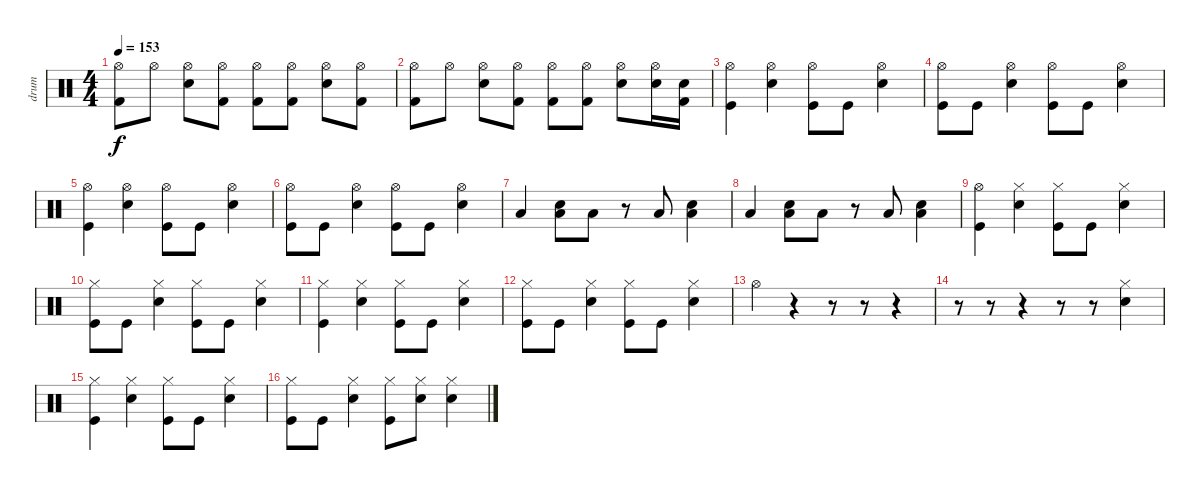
\track ("drum" "drum") {instrument percussion}
\staff {score}
\articulation defaults
\ts (4 4)
\tempo 153
\clef neutral
\ks aminor
("Hi-Hat (open)" "Kick (hit) 2").8{dy f} "Hi-Hat (open)".8 ("Hi-Hat (open)" "Snare (hit) 2").8 ("Hi-Hat (open)" "Kick (hit) 2").8 ("Hi-Hat (open)" "Kick (hit) 2").8 ("Hi-Hat (open)" "Kick (hit) 2").8 ("Hi-Hat (open)" "Snare (hit) 2").8 ("Hi-Hat (open)" "Kick (hit) 2").8 |
("Hi-Hat (open)" "Kick (hit) 2").8 "Hi-Hat (open)".8 ("Hi-Hat (open)" "Snare (hit) 2").8 ("Hi-Hat (open)" "Kick (hit) 2").8 ("Hi-Hat (open)" "Kick (hit) 2").8 ("Hi-Hat (open)" "Kick (hit) 2").8 ("Hi-Hat (open)" "Snare (hit) 2").8 ("Hi-Hat (open)" "Snare (hit) 2").16 ("Snare (hit) 2" "Kick (hit) 2").16 |
("Hi-Hat (open)" "Kick (hit)").4 ("Hi-Hat (open)" "Snare (hit) 2").4 ("Hi-Hat (open)" "Kick (hit)").8 "Kick (hit)".8 ("Hi-Hat (open)" "Snare (hit) 2").4 |
("Hi-Hat (open)" "Kick (hit)").8 "Kick (hit)".8 ("Hi-Hat (open)" "Snare (hit) 2").4 ("Hi-Hat (open)" "Kick (hit)").8 "Kick (hit)".8 ("Hi-Hat (open)" "Snare (hit) 2").4 |
("Hi-Hat (open)" "Kick (hit)").4 ("Hi-Hat (open)" "Snare (hit) 2").4 ("Hi-Hat (open)" "Kick (hit)").8 "Kick (hit)".8 ("Hi-Hat (open)" "Snare (hit) 2").4 |
\ks c
("Hi-Hat (open)" "Kick (hit)").8 "Kick (hit)".8 ("Hi-Hat (open)" "Snare (hit) 2").4 ("Hi-Hat (open)" "Kick (hit)").8 "Kick (hit)".8 ("Hi-Hat (open)" "Snare (hit) 2").4 |
\ks aminor "Low Floor Tom (hit)".4
("Snare (hit) 2" "Low Floor Tom (hit)").8 "Low Floor Tom (hit)".8 r.8 "Low Floor Tom (hit)".8 ("Snare (hit) 2" "Low Floor Tom (hit)").4 |
"Low Floor Tom (hit)".4 ("Snare (hit) 2" "Low Floor Tom (hit)").8 "Low Floor Tom (hit)".8 r.8 "Low Floor Tom (hit)".8 ("Snare (hit) 2" "Low Floor Tom (hit)").4 |
\ks c
("Hi-Hat (open)" "Kick (hit)").4 ("Hi-Hat (closed)" "Snare (hit) 2").4 ("Hi-Hat (closed)" "Kick (hit)").8 "Kick (hit)".8 ("Hi-Hat (closed)" "Snare (hit) 2").4 |
("Hi-Hat (closed)" "Kick (hit)").8 "Kick (hit)".8 ("Hi-Hat (closed)" "Snare (hit) 2").4 ("Hi-Hat (closed)" "Kick (hit)").8 "Kick (hit)".8 ("Hi-Hat (closed)" "Snare (hit) 2").4 |
("Hi-Hat (closed)" "Kick (hit)").4 ("Hi-Hat (closed)" "Snare (hit) 2").4 ("Hi-Hat (closed)" "Kick (hit)").8 "Kick (hit)".8 ("Hi-Hat (closed)" "Snare (hit) 2").4 |
("Hi-Hat (closed)" "Kick (hit)").8 "Kick (hit)".8 ("Hi-Hat (closed)" "Snare (hit) 2").4 ("Hi-Hat (closed)" "Kick (hit)").8 "Kick (hit)".8 ("Hi-Hat (closed)" "Snare (hit) 2").4 |
"Hi-Hat (open)".4 r.4 r.8 r.8 r.4 |
r.8 r.8 r.4 r.8 r.8 ("Hi-Hat (closed)" "Snare (hit) 2").4 |
("Hi-Hat (closed)" "Kick (hit)").4 ("Hi-Hat (closed)" "Snare (hit) 2").4 ("Hi-Hat (closed)" "Kick (hit)").8 "Kick (hit)".8 ("Hi-Hat (closed)" "Snare (hit) 2").4 |
("Hi-Hat (closed)" "Kick (hit)").8 "Kick (hit)".8 ("Hi-Hat (closed)" "Snare (hit) 2").4 ("Hi-Hat (closed)" "Kick (hit)").8 ("Hi-Hat (closed)" "Snare (hit) 2").8 ("Hi-Hat (closed)" "Snare (hit) 2").4
